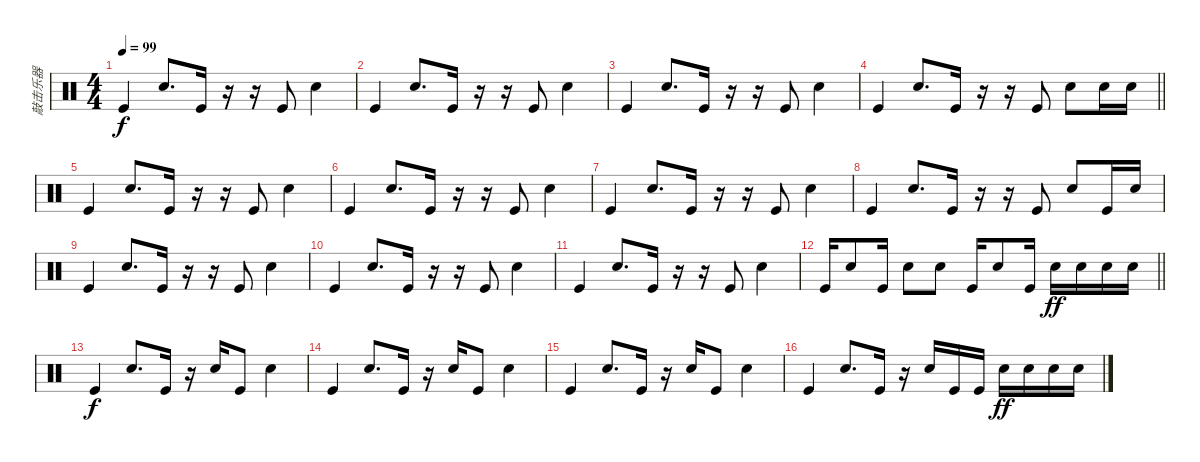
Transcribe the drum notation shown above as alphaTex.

\track ("敲击乐器" "敲击乐器") {instrument percussion}
\staff {score}
\articulation defaults
\ts (4 4)
\tempo 99
\clef neutral
\ks c "Kick (hit)".4{dy f} "Snare (hit) 2".8{d} "Kick (hit)".16
r.16 r.16 "Kick (hit)".8 "Snare (hit) 2".4 |
"Kick (hit)".4 "Snare (hit) 2".8{d} "Kick (hit)".16 r.16 r.16 "Kick (hit)".8 "Snare (hit) 2".4 |
"Kick (hit)".4 "Snare (hit) 2".8{d} "Kick (hit)".16 r.16 r.16 "Kick (hit)".8 "Snare (hit) 2".4 |
\barLineRight lightlight "Kick (hit)".4 "Snare (hit) 2".8{d} "Kick (hit)".16
r.16 r.16 "Kick (hit)".8 "Snare (hit) 2".8 "Snare (hit) 2".16 "Snare (hit) 2".16 |
"Kick (hit)".4 "Snare (hit) 2".8{d} "Kick (hit)".16 r.16 r.16 "Kick (hit)".8 "Snare (hit) 2".4 |
"Kick (hit)".4 "Snare (hit) 2".8{d} "Kick (hit)".16 r.16 r.16 "Kick (hit)".8 "Snare (hit) 2".4 |
"Kick (hit)".4 "Snare (hit) 2".8{d} "Kick (hit)".16 r.16 r.16 "Kick (hit)".8 "Snare (hit) 2".4 |
"Kick (hit)".4 "Snare (hit) 2".8{d} "Kick (hit)".16 r.16 r.16 "Kick (hit)".8 "Snare (hit) 2".8 "Kick (hit)".16 "Snare (hit) 2".16 |
"Kick (hit)".4 "Snare (hit) 2".8{d} "Kick (hit)".16 r.16 r.16 "Kick (hit)".8 "Snare (hit) 2".4 |
"Kick (hit)".4 "Snare (hit) 2".8{d} "Kick (hit)".16 r.16 r.16 "Kick (hit)".8 "Snare (hit) 2".4 |
"Kick (hit)".4 "Snare (hit) 2".8{d} "Kick (hit)".16 r.16 r.16 "Kick (hit)".8 "Snare (hit) 2".4 |
\barLineRight lightlight "Kick (hit)".16 "Snare (hit) 2".8 "Kick (hit)".16 "Snare (hit) 2".8 "Snare (hit) 2".8 "Kick (hit)".16 "Snare (hit) 2".8 "Kick (hit)".16 "Snare (hit) 2".16{dy ff} "Snare (hit) 2".16 "Snare (hit) 2".16 "Snare (hit) 2".16
|
"Kick (hit)".4{dy f} "Snare (hit) 2".8{d} "Kick (hit)".16 r.16 "Snare (hit) 2".16 "Kick (hit)".8 "Snare (hit) 2".4 |
"Kick (hit)".4 "Snare (hit) 2".8{d} "Kick (hit)".16 r.16 "Snare (hit) 2".16 "Kick (hit)".8 "Snare (hit) 2".4 |
"Kick (hit)".4 "Snare (hit) 2".8{d} "Kick (hit)".16 r.16 "Snare (hit) 2".16 "Kick (hit)".8 "Snare (hit) 2".4 |
"Kick (hit)".4 "Snare (hit) 2".8{d} "Kick (hit)".16 r.16 "Snare (hit) 2".16 "Kick (hit)".16 "Kick (hit)".16 "Snare (hit) 2".16{dy ff} "Snare (hit) 2".16 "Snare (hit) 2".16 "Snare (hit) 2".16
